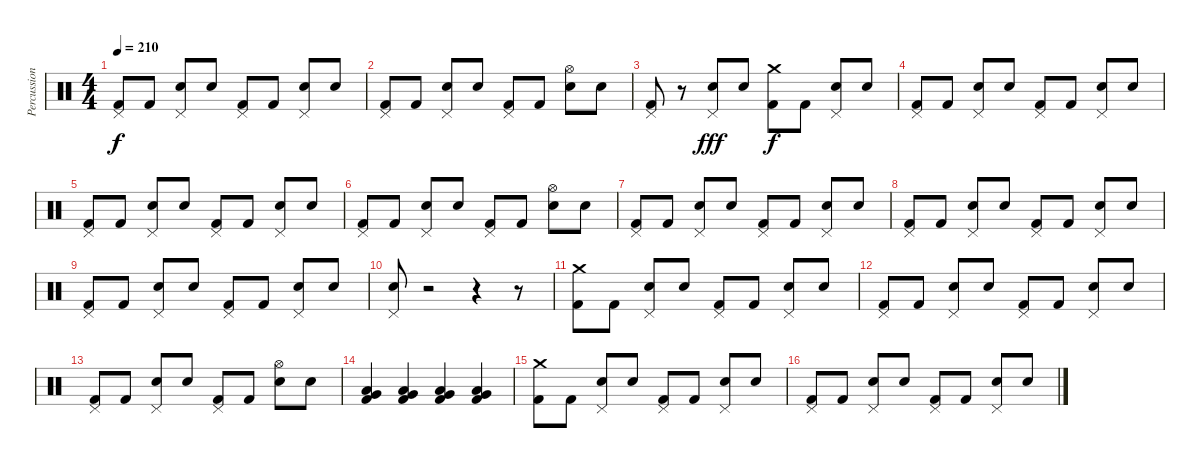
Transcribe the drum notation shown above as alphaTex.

\track ("Percussion" "Percussion") {instrument percussion}
\staff {score}
\articulation defaults
\ts (4 4)
\tempo 210
\clef neutral
\ks c
("Pedal Hi-Hat (hit)" "Kick (hit) 2").8{dy f} "Kick (hit) 2".8 ("Pedal Hi-Hat (hit)" "Electric Snare (hit)").8 "Electric Snare (hit)".8 ("Pedal Hi-Hat (hit)" "Kick (hit) 2").8 "Kick (hit) 2".8 ("Pedal Hi-Hat (hit)" "Electric Snare (hit)").8 "Electric Snare (hit)".8 |
("Pedal Hi-Hat (hit)" "Kick (hit) 2").8 "Kick (hit) 2".8 ("Pedal Hi-Hat (hit)" "Electric Snare (hit)").8 "Electric Snare (hit)".8 ("Pedal Hi-Hat (hit)" "Kick (hit) 2").8 "Kick (hit) 2".8 ("Hi-Hat (open)" "Electric Snare (hit)").8 "Electric Snare (hit)".8 |
("Pedal Hi-Hat (hit)" "Kick (hit) 2").8 r.8 ("Pedal Hi-Hat (hit)" "Electric Snare (hit)").8{dy fff} "Electric Snare (hit)".8 ("Crash medium (hit)" "Kick (hit) 2").8{dy f} "Kick (hit) 2".8 ("Pedal Hi-Hat (hit)" "Electric Snare (hit)").8 "Electric Snare (hit)".8 |
("Pedal Hi-Hat (hit)" "Kick (hit) 2").8 "Kick (hit) 2".8 ("Pedal Hi-Hat (hit)" "Electric Snare (hit)").8 "Electric Snare (hit)".8 ("Pedal Hi-Hat (hit)" "Kick (hit) 2").8 "Kick (hit) 2".8 ("Pedal Hi-Hat (hit)" "Electric Snare (hit)").8 "Electric Snare (hit)".8 |
("Pedal Hi-Hat (hit)" "Kick (hit) 2").8 "Kick (hit) 2".8 ("Pedal Hi-Hat (hit)" "Electric Snare (hit)").8 "Electric Snare (hit)".8 ("Pedal Hi-Hat (hit)" "Kick (hit) 2").8 "Kick (hit) 2".8 ("Pedal Hi-Hat (hit)" "Electric Snare (hit)").8 "Electric Snare (hit)".8 |
("Pedal Hi-Hat (hit)" "Kick (hit) 2").8 "Kick (hit) 2".8 ("Pedal Hi-Hat (hit)" "Electric Snare (hit)").8 "Electric Snare (hit)".8 ("Pedal Hi-Hat (hit)" "Kick (hit) 2").8 "Kick (hit) 2".8 ("Hi-Hat (open)" "Electric Snare (hit)").8 "Electric Snare (hit)".8 |
("Pedal Hi-Hat (hit)" "Kick (hit) 2").8 "Kick (hit) 2".8 ("Pedal Hi-Hat (hit)" "Electric Snare (hit)").8 "Electric Snare (hit)".8 ("Pedal Hi-Hat (hit)" "Kick (hit) 2").8 "Kick (hit) 2".8 ("Pedal Hi-Hat (hit)" "Electric Snare (hit)").8 "Electric Snare (hit)".8 |
("Pedal Hi-Hat (hit)" "Kick (hit) 2").8 "Kick (hit) 2".8 ("Pedal Hi-Hat (hit)" "Electric Snare (hit)").8 "Electric Snare (hit)".8 ("Pedal Hi-Hat (hit)" "Kick (hit) 2").8 "Kick (hit) 2".8 ("Pedal Hi-Hat (hit)" "Electric Snare (hit)").8 "Electric Snare (hit)".8 |
("Pedal Hi-Hat (hit)" "Kick (hit) 2").8 "Kick (hit) 2".8 ("Pedal Hi-Hat (hit)" "Electric Snare (hit)").8 "Electric Snare (hit)".8 ("Pedal Hi-Hat (hit)" "Kick (hit) 2").8 "Kick (hit) 2".8 ("Pedal Hi-Hat (hit)" "Electric Snare (hit)").8 "Electric Snare (hit)".8 |
("Pedal Hi-Hat (hit)" "Electric Snare (hit)").8 r.2 r.4 r.8 |
("Crash medium (hit)" "Kick (hit) 2").8 "Kick (hit) 2".8 ("Pedal Hi-Hat (hit)" "Electric Snare (hit)").8 "Electric Snare (hit)".8 ("Pedal Hi-Hat (hit)" "Kick (hit) 2").8 "Kick (hit) 2".8 ("Pedal Hi-Hat (hit)" "Electric Snare (hit)").8 "Electric Snare (hit)".8 |
("Pedal Hi-Hat (hit)" "Kick (hit) 2").8 "Kick (hit) 2".8 ("Pedal Hi-Hat (hit)" "Electric Snare (hit)").8 "Electric Snare (hit)".8 ("Pedal Hi-Hat (hit)" "Kick (hit) 2").8 "Kick (hit) 2".8 ("Pedal Hi-Hat (hit)" "Electric Snare (hit)").8 "Electric Snare (hit)".8 |
("Pedal Hi-Hat (hit)" "Kick (hit) 2").8 "Kick (hit) 2".8 ("Pedal Hi-Hat (hit)" "Electric Snare (hit)").8 "Electric Snare (hit)".8 ("Pedal Hi-Hat (hit)" "Kick (hit) 2").8 "Kick (hit) 2".8 ("Hi-Hat (open)" "Electric Snare (hit)").8 "Electric Snare (hit)".8 |
("Low Floor Tom (hit)" "Very Low Tom (hit)" "Kick (hit) 2").4 ("Low Floor Tom (hit)" "Very Low Tom (hit)" "Kick (hit) 2").4 ("Low Floor Tom (hit)" "Very Low Tom (hit)" "Kick (hit) 2").4 ("Low Floor Tom (hit)" "Very Low Tom (hit)" "Kick (hit) 2").4 |
("Crash medium (hit)" "Kick (hit) 2").8 "Kick (hit) 2".8 ("Pedal Hi-Hat (hit)" "Electric Snare (hit)").8 "Electric Snare (hit)".8 ("Pedal Hi-Hat (hit)" "Kick (hit) 2").8 "Kick (hit) 2".8 ("Pedal Hi-Hat (hit)" "Electric Snare (hit)").8 "Electric Snare (hit)".8 |
("Pedal Hi-Hat (hit)" "Kick (hit) 2").8 "Kick (hit) 2".8 ("Pedal Hi-Hat (hit)" "Electric Snare (hit)").8 "Electric Snare (hit)".8 ("Pedal Hi-Hat (hit)" "Kick (hit) 2").8 "Kick (hit) 2".8 ("Pedal Hi-Hat (hit)" "Electric Snare (hit)").8 "Electric Snare (hit)".8
